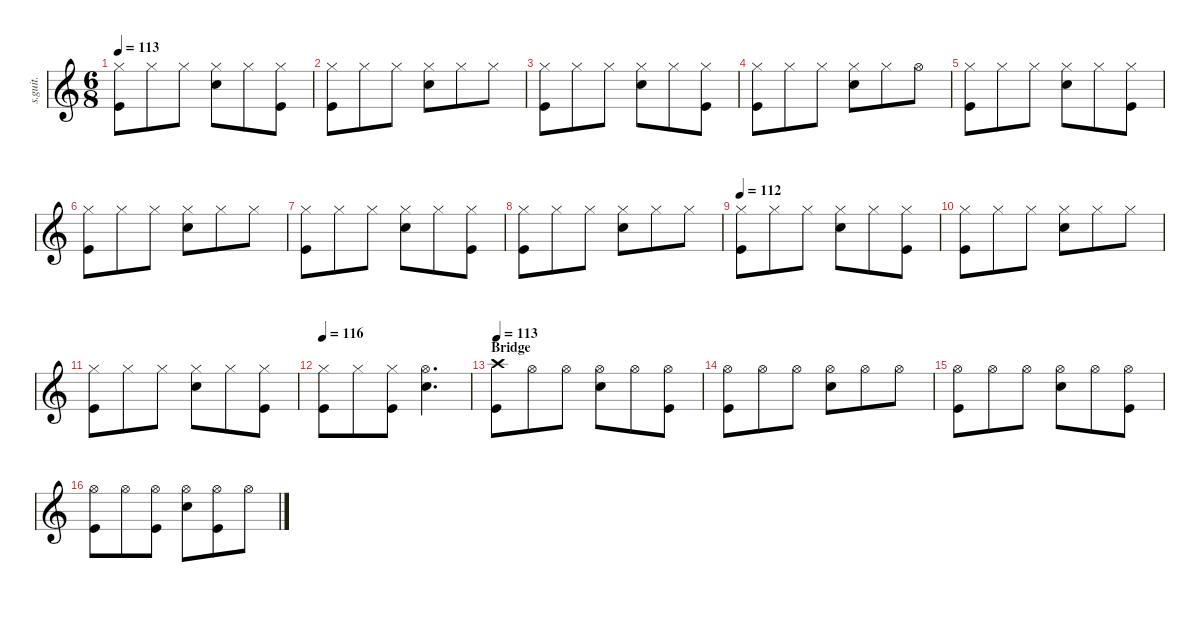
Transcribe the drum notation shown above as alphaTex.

\defaultSystemsLayout 4
\hideDynamics
\bracketExtendMode nobrackets
\track ("John Dolmayan - Drums" "s.guit.") {instrument percussion}
\staff {score}
\articulation defaults
\ts (6 8)
\tempo 113
\clef g2
\ks c
("Hi-Hat (closed)" "Kick (hit)").8{lyrics (0 "") lyrics (1 "") lyrics (2 "") lyrics (3 "") lyrics (4 "") dy f} "Hi-Hat (closed)".8{lyrics (0 "") lyrics (1 "") lyrics (2 "") lyrics (3 "") lyrics (4 "")} "Hi-Hat (closed)".8{lyrics (0 "") lyrics (1 "") lyrics (2 "") lyrics (3 "") lyrics (4 "")} ("Hi-Hat (closed)" "Snare (hit) 2").8{lyrics (0 "") lyrics (1 "") lyrics (2 "") lyrics (3 "") lyrics (4 "")} "Hi-Hat (closed)".8{lyrics (0 "") lyrics (1 "") lyrics (2 "") lyrics (3 "") lyrics (4 "")} ("Hi-Hat (closed)" "Kick (hit)").8{lyrics (0 "") lyrics (1 "") lyrics (2 "") lyrics (3 "") lyrics (4 "")} |
("Hi-Hat (closed)" "Kick (hit)").8{lyrics (0 "") lyrics (1 "") lyrics (2 "") lyrics (3 "") lyrics (4 "")} "Hi-Hat (closed)".8{lyrics (0 "") lyrics (1 "") lyrics (2 "") lyrics (3 "") lyrics (4 "")} "Hi-Hat (closed)".8{lyrics (0 "") lyrics (1 "") lyrics (2 "") lyrics (3 "") lyrics (4 "")} ("Hi-Hat (closed)" "Snare (hit) 2").8{lyrics (0 "") lyrics (1 "") lyrics (2 "") lyrics (3 "") lyrics (4 "")} "Hi-Hat (closed)".8{lyrics (0 "") lyrics (1 "") lyrics (2 "") lyrics (3 "") lyrics (4 "")} "Hi-Hat (closed)".8{lyrics (0 "") lyrics (1 "") lyrics (2 "") lyrics (3 "") lyrics (4 "")} |
("Hi-Hat (closed)" "Kick (hit)").8{lyrics (0 "") lyrics (1 "") lyrics (2 "") lyrics (3 "") lyrics (4 "")} "Hi-Hat (closed)".8{lyrics (0 "") lyrics (1 "") lyrics (2 "") lyrics (3 "") lyrics (4 "")} "Hi-Hat (closed)".8{lyrics (0 "") lyrics (1 "") lyrics (2 "") lyrics (3 "") lyrics (4 "")} ("Hi-Hat (closed)" "Snare (hit) 2").8{lyrics (0 "") lyrics (1 "") lyrics (2 "") lyrics (3 "") lyrics (4 "")} "Hi-Hat (closed)".8{lyrics (0 "") lyrics (1 "") lyrics (2 "") lyrics (3 "") lyrics (4 "")} ("Hi-Hat (closed)" "Kick (hit)").8{lyrics (0 "") lyrics (1 "") lyrics (2 "") lyrics (3 "") lyrics (4 "")} |
("Hi-Hat (closed)" "Kick (hit)").8{lyrics (0 "") lyrics (1 "") lyrics (2 "") lyrics (3 "") lyrics (4 "")} "Hi-Hat (closed)".8{lyrics (0 "") lyrics (1 "") lyrics (2 "") lyrics (3 "") lyrics (4 "")} "Hi-Hat (closed)".8{lyrics (0 "") lyrics (1 "") lyrics (2 "") lyrics (3 "") lyrics (4 "")} ("Hi-Hat (closed)" "Snare (hit) 2").8{lyrics (0 "") lyrics (1 "") lyrics (2 "") lyrics (3 "") lyrics (4 "")} "Hi-Hat (closed)".8{lyrics (0 "") lyrics (1 "") lyrics (2 "") lyrics (3 "") lyrics (4 "")} "Hi-Hat (open)".8{lyrics (0 "") lyrics (1 "") lyrics (2 "") lyrics (3 "") lyrics (4 "")} |
("Hi-Hat (closed)" "Kick (hit)").8{lyrics (0 "") lyrics (1 "") lyrics (2 "") lyrics (3 "") lyrics (4 "")} "Hi-Hat (closed)".8{lyrics (0 "") lyrics (1 "") lyrics (2 "") lyrics (3 "") lyrics (4 "")} "Hi-Hat (closed)".8{lyrics (0 "") lyrics (1 "") lyrics (2 "") lyrics (3 "") lyrics (4 "")} ("Hi-Hat (closed)" "Snare (hit) 2").8{lyrics (0 "") lyrics (1 "") lyrics (2 "") lyrics (3 "") lyrics (4 "")} "Hi-Hat (closed)".8{lyrics (0 "") lyrics (1 "") lyrics (2 "") lyrics (3 "") lyrics (4 "")} ("Hi-Hat (closed)" "Kick (hit)").8{lyrics (0 "") lyrics (1 "") lyrics (2 "") lyrics (3 "") lyrics (4 "")} |
("Hi-Hat (closed)" "Kick (hit)").8{lyrics (0 "") lyrics (1 "") lyrics (2 "") lyrics (3 "") lyrics (4 "")} "Hi-Hat (closed)".8{lyrics (0 "") lyrics (1 "") lyrics (2 "") lyrics (3 "") lyrics (4 "")} "Hi-Hat (closed)".8{lyrics (0 "") lyrics (1 "") lyrics (2 "") lyrics (3 "") lyrics (4 "")} ("Hi-Hat (closed)" "Snare (hit) 2").8{lyrics (0 "") lyrics (1 "") lyrics (2 "") lyrics (3 "") lyrics (4 "")} "Hi-Hat (closed)".8{lyrics (0 "") lyrics (1 "") lyrics (2 "") lyrics (3 "") lyrics (4 "")} "Hi-Hat (closed)".8{lyrics (0 "") lyrics (1 "") lyrics (2 "") lyrics (3 "") lyrics (4 "")} |
("Hi-Hat (closed)" "Kick (hit)").8{lyrics (0 "") lyrics (1 "") lyrics (2 "") lyrics (3 "") lyrics (4 "")} "Hi-Hat (closed)".8{lyrics (0 "") lyrics (1 "") lyrics (2 "") lyrics (3 "") lyrics (4 "")} "Hi-Hat (closed)".8{lyrics (0 "") lyrics (1 "") lyrics (2 "") lyrics (3 "") lyrics (4 "")} ("Hi-Hat (closed)" "Snare (hit) 2").8{lyrics (0 "") lyrics (1 "") lyrics (2 "") lyrics (3 "") lyrics (4 "")} "Hi-Hat (closed)".8{lyrics (0 "") lyrics (1 "") lyrics (2 "") lyrics (3 "") lyrics (4 "")} ("Hi-Hat (closed)" "Kick (hit)").8{lyrics (0 "") lyrics (1 "") lyrics (2 "") lyrics (3 "") lyrics (4 "")} |
("Hi-Hat (closed)" "Kick (hit)").8{lyrics (0 "") lyrics (1 "") lyrics (2 "") lyrics (3 "") lyrics (4 "")} "Hi-Hat (closed)".8{lyrics (0 "") lyrics (1 "") lyrics (2 "") lyrics (3 "") lyrics (4 "")} "Hi-Hat (closed)".8{lyrics (0 "") lyrics (1 "") lyrics (2 "") lyrics (3 "") lyrics (4 "")} ("Hi-Hat (closed)" "Snare (hit) 2").8{lyrics (0 "") lyrics (1 "") lyrics (2 "") lyrics (3 "") lyrics (4 "")} "Hi-Hat (closed)".8{lyrics (0 "") lyrics (1 "") lyrics (2 "") lyrics (3 "") lyrics (4 "")} "Hi-Hat (closed)".8{lyrics (0 "") lyrics (1 "") lyrics (2 "") lyrics (3 "") lyrics (4 "")} |
\tempo 112
("Hi-Hat (closed)" "Kick (hit)").8{lyrics (0 "") lyrics (1 "") lyrics (2 "") lyrics (3 "") lyrics (4 "")} "Hi-Hat (closed)".8{lyrics (0 "") lyrics (1 "") lyrics (2 "") lyrics (3 "") lyrics (4 "")} "Hi-Hat (closed)".8{lyrics (0 "") lyrics (1 "") lyrics (2 "") lyrics (3 "") lyrics (4 "")} ("Hi-Hat (closed)" "Snare (hit) 2").8{lyrics (0 "") lyrics (1 "") lyrics (2 "") lyrics (3 "") lyrics (4 "")} "Hi-Hat (closed)".8{lyrics (0 "") lyrics (1 "") lyrics (2 "") lyrics (3 "") lyrics (4 "")} ("Hi-Hat (closed)" "Kick (hit)").8{lyrics (0 "") lyrics (1 "") lyrics (2 "") lyrics (3 "") lyrics (4 "")} |
("Hi-Hat (closed)" "Kick (hit)").8{lyrics (0 "") lyrics (1 "") lyrics (2 "") lyrics (3 "") lyrics (4 "")} "Hi-Hat (closed)".8{lyrics (0 "") lyrics (1 "") lyrics (2 "") lyrics (3 "") lyrics (4 "")} "Hi-Hat (closed)".8{lyrics (0 "") lyrics (1 "") lyrics (2 "") lyrics (3 "") lyrics (4 "")} ("Hi-Hat (closed)" "Snare (hit) 2").8{lyrics (0 "") lyrics (1 "") lyrics (2 "") lyrics (3 "") lyrics (4 "")} "Hi-Hat (closed)".8{lyrics (0 "") lyrics (1 "") lyrics (2 "") lyrics (3 "") lyrics (4 "")} "Hi-Hat (closed)".8{lyrics (0 "") lyrics (1 "") lyrics (2 "") lyrics (3 "") lyrics (4 "")} |
("Hi-Hat (closed)" "Kick (hit)").8{lyrics (0 "") lyrics (1 "") lyrics (2 "") lyrics (3 "") lyrics (4 "")} "Hi-Hat (closed)".8{lyrics (0 "") lyrics (1 "") lyrics (2 "") lyrics (3 "") lyrics (4 "")} "Hi-Hat (closed)".8{lyrics (0 "") lyrics (1 "") lyrics (2 "") lyrics (3 "") lyrics (4 "")} ("Hi-Hat (closed)" "Snare (hit) 2").8{lyrics (0 "") lyrics (1 "") lyrics (2 "") lyrics (3 "") lyrics (4 "")} "Hi-Hat (closed)".8{lyrics (0 "") lyrics (1 "") lyrics (2 "") lyrics (3 "") lyrics (4 "")} ("Hi-Hat (closed)" "Kick (hit)").8{lyrics (0 "") lyrics (1 "") lyrics (2 "") lyrics (3 "") lyrics (4 "")} |
\tempo 116
("Hi-Hat (closed)" "Kick (hit)").8{lyrics (0 "") lyrics (1 "") lyrics (2 "") lyrics (3 "") lyrics (4 "")} "Hi-Hat (closed)".8{lyrics (0 "") lyrics (1 "") lyrics (2 "") lyrics (3 "") lyrics (4 "")} ("Hi-Hat (closed)" "Kick (hit)").8{lyrics (0 "") lyrics (1 "") lyrics (2 "") lyrics (3 "") lyrics (4 "")} ("Hi-Hat (open)" "Snare (hit) 2").4{d lyrics (0 "") lyrics (1 "") lyrics (2 "") lyrics (3 "") lyrics (4 "")} |
\section ("" "Bridge")
\tempo 113
("Crash high (hit)" "Kick (hit)").8{lyrics (0 "") lyrics (1 "") lyrics (2 "") lyrics (3 "") lyrics (4 "")} "Hi-Hat (open)".8{lyrics (0 "") lyrics (1 "") lyrics (2 "") lyrics (3 "") lyrics (4 "")} "Hi-Hat (open)".8{lyrics (0 "") lyrics (1 "") lyrics (2 "") lyrics (3 "") lyrics (4 "")} ("Hi-Hat (open)" "Snare (hit) 2").8{lyrics (0 "") lyrics (1 "") lyrics (2 "") lyrics (3 "") lyrics (4 "")} "Hi-Hat (open)".8{lyrics (0 "") lyrics (1 "") lyrics (2 "") lyrics (3 "") lyrics (4 "")} ("Hi-Hat (open)" "Kick (hit)").8{lyrics (0 "") lyrics (1 "") lyrics (2 "") lyrics (3 "") lyrics (4 "")} |
("Hi-Hat (open)" "Kick (hit)").8{lyrics (0 "") lyrics (1 "") lyrics (2 "") lyrics (3 "") lyrics (4 "")} "Hi-Hat (open)".8{lyrics (0 "") lyrics (1 "") lyrics (2 "") lyrics (3 "") lyrics (4 "")} "Hi-Hat (open)".8{lyrics (0 "") lyrics (1 "") lyrics (2 "") lyrics (3 "") lyrics (4 "")} ("Hi-Hat (open)" "Snare (hit) 2").8{lyrics (0 "") lyrics (1 "") lyrics (2 "") lyrics (3 "") lyrics (4 "")} "Hi-Hat (open)".8{lyrics (0 "") lyrics (1 "") lyrics (2 "") lyrics (3 "") lyrics (4 "")} "Hi-Hat (open)".8{lyrics (0 "") lyrics (1 "") lyrics (2 "") lyrics (3 "") lyrics (4 "")} |
("Hi-Hat (open)" "Kick (hit)").8{lyrics (0 "") lyrics (1 "") lyrics (2 "") lyrics (3 "") lyrics (4 "")} "Hi-Hat (open)".8{lyrics (0 "") lyrics (1 "") lyrics (2 "") lyrics (3 "") lyrics (4 "")} "Hi-Hat (open)".8{lyrics (0 "") lyrics (1 "") lyrics (2 "") lyrics (3 "") lyrics (4 "")} ("Hi-Hat (open)" "Snare (hit) 2").8{lyrics (0 "") lyrics (1 "") lyrics (2 "") lyrics (3 "") lyrics (4 "")} "Hi-Hat (open)".8{lyrics (0 "") lyrics (1 "") lyrics (2 "") lyrics (3 "") lyrics (4 "")} ("Hi-Hat (open)" "Kick (hit)").8{lyrics (0 "") lyrics (1 "") lyrics (2 "") lyrics (3 "") lyrics (4 "")} |
("Hi-Hat (open)" "Kick (hit)").8{lyrics (0 "") lyrics (1 "") lyrics (2 "") lyrics (3 "") lyrics (4 "")} "Hi-Hat (open)".8{lyrics (0 "") lyrics (1 "") lyrics (2 "") lyrics (3 "") lyrics (4 "")} ("Hi-Hat (open)" "Kick (hit)").8{lyrics (0 "") lyrics (1 "") lyrics (2 "") lyrics (3 "") lyrics (4 "")} ("Hi-Hat (open)" "Snare (hit) 2").8{lyrics (0 "") lyrics (1 "") lyrics (2 "") lyrics (3 "") lyrics (4 "")} ("Hi-Hat (open)" "Kick (hit)").8{lyrics (0 "") lyrics (1 "") lyrics (2 "") lyrics (3 "") lyrics (4 "")} "Hi-Hat (open)".8{lyrics (0 "") lyrics (1 "") lyrics (2 "") lyrics (3 "") lyrics (4 "")}
